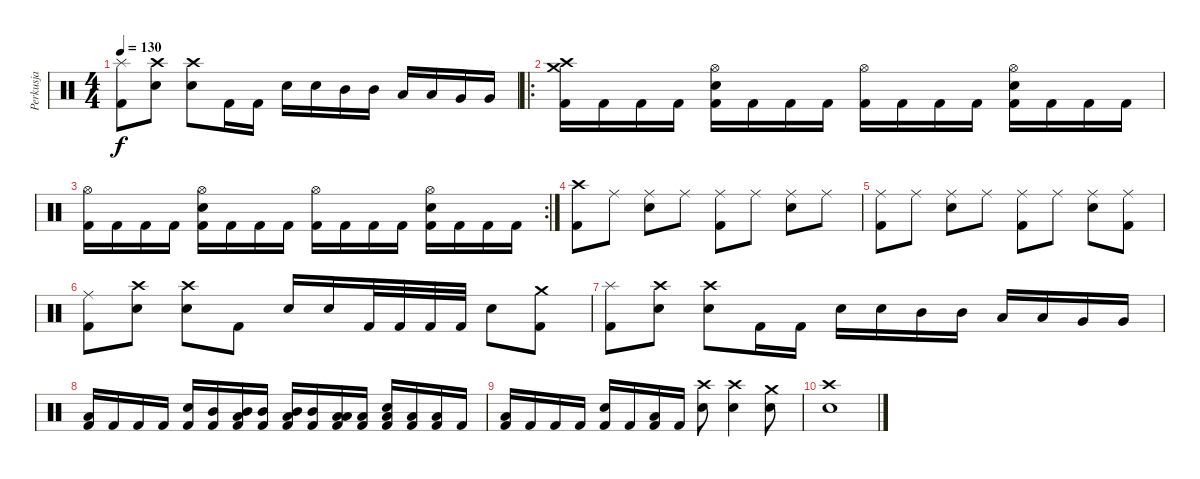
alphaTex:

\track ("Perkusja" "Perkusja") {instrument percussion}
\staff {score}
\articulation defaults
\ts (4 4)
\tempo 130
\clef neutral
\ks c
("Kick (hit) 2" "Splash (hit)").8{dy f} ("Snare (hit) 2" "Crash high (hit)").8 ("Snare (hit) 2" "Crash high (hit)").8 "Kick (hit) 2".16 "Kick (hit) 2".16 "Snare (hit) 2".16 "Snare (hit) 2".16 "Mid Tom (hit)".16 "Mid Tom (hit)".16 "Low Tom (hit)".16 "Low Tom (hit)".16 "Very Low Tom (hit)".16 "Very Low Tom (hit)".16 |
\ro
("Kick (hit) 2" "Crash high (hit)" "Crash medium (hit)").16 "Kick (hit) 2".16 "Kick (hit) 2".16 "Kick (hit) 2".16 ("Kick (hit) 2" "Snare (hit) 2" "Hi-Hat (open)").16 "Kick (hit) 2".16 "Kick (hit) 2".16 "Kick (hit) 2".16 ("Kick (hit) 2" "Hi-Hat (open)").16 "Kick (hit) 2".16 "Kick (hit) 2".16 "Kick (hit) 2".16 ("Kick (hit) 2" "Snare (hit) 2" "Hi-Hat (open)").16 "Kick (hit) 2".16 "Kick (hit) 2".16 "Kick (hit) 2".16 |
\rc 2
("Kick (hit) 2" "Hi-Hat (open)").16 "Kick (hit) 2".16 "Kick (hit) 2".16 "Kick (hit) 2".16 ("Kick (hit) 2" "Snare (hit) 2" "Hi-Hat (open)").16 "Kick (hit) 2".16 "Kick (hit) 2".16 "Kick (hit) 2".16 ("Kick (hit) 2" "Hi-Hat (open)").16 "Kick (hit) 2".16 "Kick (hit) 2".16 "Kick (hit) 2".16 ("Kick (hit) 2" "Snare (hit) 2" "Hi-Hat (open)").16 "Kick (hit) 2".16 "Kick (hit) 2".16 "Kick (hit) 2".16 |
("Kick (hit) 2" "Crash high (hit)").8 "Ride (middle)".8 ("Snare (hit) 2" "Ride (middle)").8 "Ride (middle)".8 ("Kick (hit) 2" "Ride (middle)").8 "Ride (middle)".8 ("Snare (hit) 2" "Ride (middle)").8 "Ride (middle)".8 |
("Kick (hit) 2" "Ride (middle)").8 "Ride (middle)".8 ("Snare (hit) 2" "Ride (middle)").8 "Ride (middle)".8 ("Kick (hit) 2" "Ride (middle)").8 "Ride (middle)".8 ("Snare (hit) 2" "Ride (middle)").8 ("Kick (hit) 2" "Ride (middle)").8 |
("Ride (middle)" "Kick (hit) 2").8 ("Snare (hit) 2" "Crash high (hit)").8 ("Snare (hit) 2" "Crash high (hit)").8 "Kick (hit) 2".8 "Snare (hit) 2".16 "Snare (hit) 2".16 "Kick (hit) 2".32 "Kick (hit) 2".32 "Kick (hit) 2".32 "Kick (hit) 2".32 "Snare (hit) 2".8 ("Crash medium (hit)" "Kick (hit) 2").8 |
("Kick (hit) 2" "Splash (hit)").8 ("Snare (hit) 2" "Crash high (hit)").8 ("Snare (hit) 2" "Crash high (hit)").8 "Kick (hit) 2".16 "Kick (hit) 2".16 "Snare (hit) 2".16 "Snare (hit) 2".16 "Mid Tom (hit)".16 "Mid Tom (hit)".16 "Low Tom (hit)".16 "Low Tom (hit)".16 "Very Low Tom (hit)".16 "Very Low Tom (hit)".16 |
("Kick (hit) 2" "Low Floor Tom (hit)").16 "Kick (hit) 2".16 "Kick (hit) 2".16 "Kick (hit) 2".16 ("Kick (hit) 2" "Snare (hit) 2").16 ("Kick (hit) 2" "Mid Tom (hit)").16 ("Kick (hit) 2" "Low Floor Tom (hit)" "Mid Tom (hit)").16 ("Kick (hit) 2" "Mid Tom (hit)").16 ("Kick (hit) 2" "Low Floor Tom (hit)" "Mid Tom (hit)").16 ("Kick (hit) 2" "Mid Tom (hit)").16 ("Kick (hit) 2" "Low Floor Tom (hit)" "Low Tom (hit)").16 ("Kick (hit) 2" "Low Tom (hit)").16 ("Kick (hit) 2" "Snare (hit) 2" "Low Tom (hit)").16 ("Kick (hit) 2" "Low Tom (hit)").16 ("Kick (hit) 2" "Low Floor Tom (hit)").16 "Kick (hit) 2".16 |
("Kick (hit) 2" "Low Floor Tom (hit)").16 "Kick (hit) 2".16 "Kick (hit) 2".16 "Kick (hit) 2".16 ("Kick (hit) 2" "Snare (hit) 2").16 "Kick (hit) 2".16 ("Kick (hit) 2" "Low Floor Tom (hit)").16 "Kick (hit) 2".16 ("Crash high (hit)" "Snare (hit) 2").8 ("Crash high (hit)" "Snare (hit) 2").4 ("Crash medium (hit)" "Snare (hit) 2").8 |
("Crash high (hit)" "Snare (hit) 2").1
